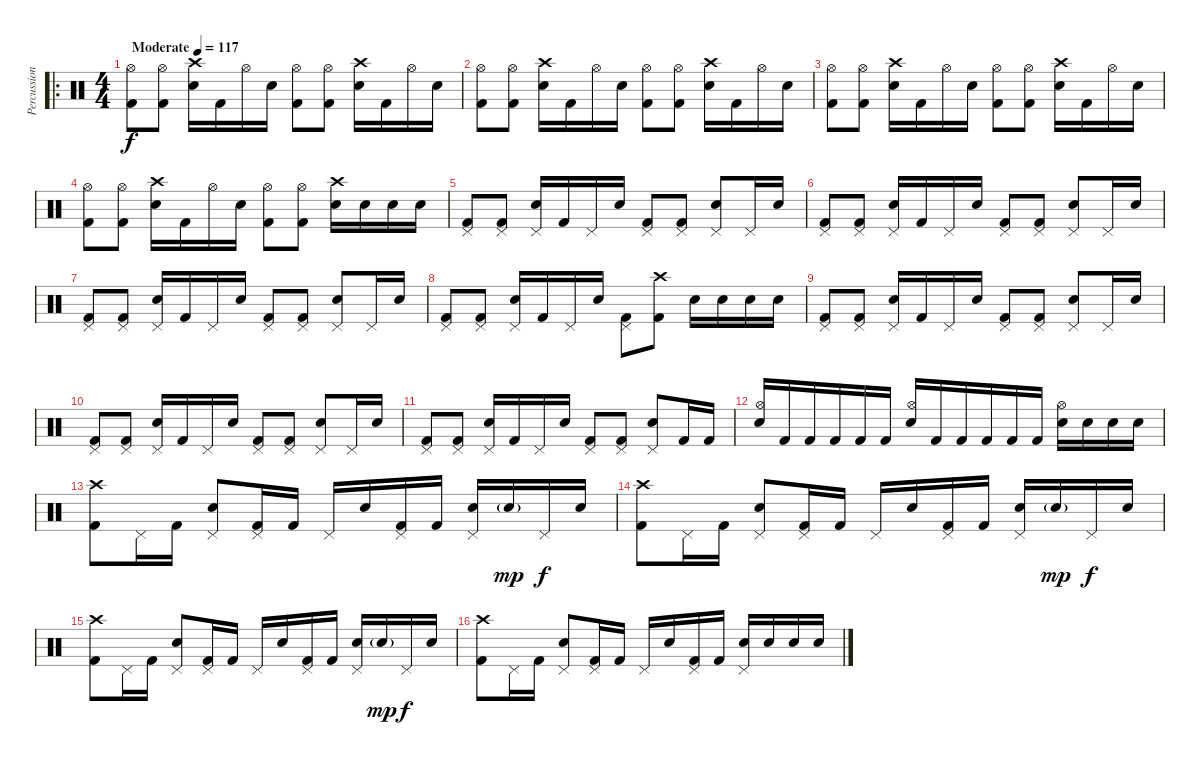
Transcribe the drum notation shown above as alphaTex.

\track ("Percussion" "Percussion") {instrument percussion}
\staff {score}
\articulation defaults
\ro
\ts (4 4)
\tempo (117 "Moderate")
\clef neutral
\ks c
("Hi-Hat (open)" "Kick (hit) 2").8{dy f} ("Hi-Hat (open)" "Kick (hit) 2").8 ("Crash high (hit)" "Snare (hit) 2").16 "Kick (hit) 2".16 "Hi-Hat (open)".16 "Snare (hit) 2".16 ("Hi-Hat (open)" "Kick (hit) 2").8 ("Hi-Hat (open)" "Kick (hit) 2").8 ("Crash high (hit)" "Snare (hit) 2").16 "Kick (hit) 2".16 "Hi-Hat (open)".16 "Snare (hit) 2".16 |
("Hi-Hat (open)" "Kick (hit) 2").8 ("Hi-Hat (open)" "Kick (hit) 2").8 ("Crash high (hit)" "Snare (hit) 2").16 "Kick (hit) 2".16 "Hi-Hat (open)".16 "Snare (hit) 2".16 ("Hi-Hat (open)" "Kick (hit) 2").8 ("Hi-Hat (open)" "Kick (hit) 2").8 ("Crash high (hit)" "Snare (hit) 2").16 "Kick (hit) 2".16 "Hi-Hat (open)".16 "Snare (hit) 2".16 |
("Hi-Hat (open)" "Kick (hit) 2").8 ("Hi-Hat (open)" "Kick (hit) 2").8 ("Crash high (hit)" "Snare (hit) 2").16 "Kick (hit) 2".16 "Hi-Hat (open)".16 "Snare (hit) 2".16 ("Hi-Hat (open)" "Kick (hit) 2").8 ("Hi-Hat (open)" "Kick (hit) 2").8 ("Crash high (hit)" "Snare (hit) 2").16 "Kick (hit) 2".16 "Hi-Hat (open)".16 "Snare (hit) 2".16 |
("Hi-Hat (open)" "Kick (hit) 2").8 ("Hi-Hat (open)" "Kick (hit) 2").8 ("Crash high (hit)" "Snare (hit) 2").16 "Kick (hit) 2".16 "Hi-Hat (open)".16 "Snare (hit) 2".16 ("Hi-Hat (open)" "Kick (hit) 2").8 ("Hi-Hat (open)" "Kick (hit) 2").8 ("Crash high (hit)" "Snare (hit) 2").16 "Snare (hit) 2".16 "Snare (hit) 2".16 "Snare (hit) 2".16 |
("Pedal Hi-Hat (hit)" "Kick (hit) 2").8 ("Pedal Hi-Hat (hit)" "Kick (hit) 2").8 ("Pedal Hi-Hat (hit)" "Snare (hit) 2").16 "Kick (hit) 2".16 "Pedal Hi-Hat (hit)".16 "Snare (hit) 2".16 ("Pedal Hi-Hat (hit)" "Kick (hit) 2").8 ("Pedal Hi-Hat (hit)" "Kick (hit) 2").8 ("Pedal Hi-Hat (hit)" "Snare (hit) 2").8 "Pedal Hi-Hat (hit)".16 "Snare (hit) 2".16 |
("Pedal Hi-Hat (hit)" "Kick (hit) 2").8 ("Pedal Hi-Hat (hit)" "Kick (hit) 2").8 ("Pedal Hi-Hat (hit)" "Snare (hit) 2").16 "Kick (hit) 2".16 "Pedal Hi-Hat (hit)".16 "Snare (hit) 2".16 ("Pedal Hi-Hat (hit)" "Kick (hit) 2").8 ("Pedal Hi-Hat (hit)" "Kick (hit) 2").8 ("Pedal Hi-Hat (hit)" "Snare (hit) 2").8 "Pedal Hi-Hat (hit)".16 "Snare (hit) 2".16 |
("Pedal Hi-Hat (hit)" "Kick (hit) 2").8 ("Pedal Hi-Hat (hit)" "Kick (hit) 2").8 ("Pedal Hi-Hat (hit)" "Snare (hit) 2").16 "Kick (hit) 2".16 "Pedal Hi-Hat (hit)".16 "Snare (hit) 2".16 ("Pedal Hi-Hat (hit)" "Kick (hit) 2").8 ("Pedal Hi-Hat (hit)" "Kick (hit) 2").8 ("Pedal Hi-Hat (hit)" "Snare (hit) 2").8 "Pedal Hi-Hat (hit)".16 "Snare (hit) 2".16 |
("Pedal Hi-Hat (hit)" "Kick (hit) 2").8 ("Pedal Hi-Hat (hit)" "Kick (hit) 2").8 ("Pedal Hi-Hat (hit)" "Snare (hit) 2").16 "Kick (hit) 2".16 "Pedal Hi-Hat (hit)".16 "Snare (hit) 2".16 ("Pedal Hi-Hat (hit)" "Kick (hit) 2").8 ("Crash high (hit)" "Kick (hit) 2").8 "Snare (hit) 2".16 "Snare (hit) 2".16 "Snare (hit) 2".16 "Snare (hit) 2".16 |
("Pedal Hi-Hat (hit)" "Kick (hit) 2").8 ("Pedal Hi-Hat (hit)" "Kick (hit) 2").8 ("Pedal Hi-Hat (hit)" "Snare (hit) 2").16 "Kick (hit) 2".16 "Pedal Hi-Hat (hit)".16 "Snare (hit) 2".16 ("Pedal Hi-Hat (hit)" "Kick (hit) 2").8 ("Pedal Hi-Hat (hit)" "Kick (hit) 2").8 ("Pedal Hi-Hat (hit)" "Snare (hit) 2").8 "Pedal Hi-Hat (hit)".16 "Snare (hit) 2".16 |
("Pedal Hi-Hat (hit)" "Kick (hit) 2").8 ("Pedal Hi-Hat (hit)" "Kick (hit) 2").8 ("Pedal Hi-Hat (hit)" "Snare (hit) 2").16 "Kick (hit) 2".16 "Pedal Hi-Hat (hit)".16 "Snare (hit) 2".16 ("Pedal Hi-Hat (hit)" "Kick (hit) 2").8 ("Pedal Hi-Hat (hit)" "Kick (hit) 2").8 ("Pedal Hi-Hat (hit)" "Snare (hit) 2").8 "Pedal Hi-Hat (hit)".16 "Snare (hit) 2".16 |
("Pedal Hi-Hat (hit)" "Kick (hit) 2").8 ("Pedal Hi-Hat (hit)" "Kick (hit) 2").8 ("Pedal Hi-Hat (hit)" "Snare (hit) 2").16 "Kick (hit) 2".16 "Pedal Hi-Hat (hit)".16 "Snare (hit) 2".16 ("Pedal Hi-Hat (hit)" "Kick (hit) 2").8 ("Pedal Hi-Hat (hit)" "Kick (hit) 2").8 ("Pedal Hi-Hat (hit)" "Snare (hit) 2").8 "Kick (hit) 2".16 "Kick (hit) 2".16 |
("Hi-Hat (open)" "Snare (hit) 2").16{beam Up} "Kick (hit) 2".16{beam Up beam merge} "Kick (hit) 2".16{beam Up beam merge} "Kick (hit) 2".16{beam Up beam merge} "Kick (hit) 2".16{beam Up beam merge} "Kick (hit) 2".16{beam Up beam split} ("Hi-Hat (open)" "Snare (hit) 2").16{beam Up} "Kick (hit) 2".16{beam Up beam merge} "Kick (hit) 2".16 "Kick (hit) 2".16 "Kick (hit) 2".16 "Kick (hit) 2".16 ("Hi-Hat (open)" "Snare (hit) 2").16 "Snare (hit) 2".16 "Snare (hit) 2".16 "Snare (hit) 2".16 |
("Crash high (hit)" "Kick (hit) 2").8 "Pedal Hi-Hat (hit)".16 "Kick (hit) 2".16 ("Pedal Hi-Hat (hit)" "Snare (hit) 2").8 ("Pedal Hi-Hat (hit)" "Kick (hit) 2").16 "Kick (hit) 2".16 "Pedal Hi-Hat (hit)".16 "Snare (hit) 2".16 ("Pedal Hi-Hat (hit)" "Kick (hit) 2").16 "Kick (hit) 2".16 ("Pedal Hi-Hat (hit)" "Snare (hit) 2").16 "Snare (hit) 2"{g}.16{dy mp} "Pedal Hi-Hat (hit)".16{dy f} "Snare (hit) 2".16 |
("Crash high (hit)" "Kick (hit) 2").8 "Pedal Hi-Hat (hit)".16 "Kick (hit) 2".16 ("Pedal Hi-Hat (hit)" "Snare (hit) 2").8 ("Pedal Hi-Hat (hit)" "Kick (hit) 2").16 "Kick (hit) 2".16 "Pedal Hi-Hat (hit)".16 "Snare (hit) 2".16 ("Pedal Hi-Hat (hit)" "Kick (hit) 2").16 "Kick (hit) 2".16 ("Pedal Hi-Hat (hit)" "Snare (hit) 2").16 "Snare (hit) 2"{g}.16{dy mp} "Pedal Hi-Hat (hit)".16{dy f} "Snare (hit) 2".16 |
("Crash high (hit)" "Kick (hit) 2").8 "Pedal Hi-Hat (hit)".16 "Kick (hit) 2".16 ("Pedal Hi-Hat (hit)" "Snare (hit) 2").8 ("Pedal Hi-Hat (hit)" "Kick (hit) 2").16 "Kick (hit) 2".16 "Pedal Hi-Hat (hit)".16 "Snare (hit) 2".16 ("Pedal Hi-Hat (hit)" "Kick (hit) 2").16 "Kick (hit) 2".16 ("Pedal Hi-Hat (hit)" "Snare (hit) 2").16 "Snare (hit) 2"{g}.16{dy mp} "Pedal Hi-Hat (hit)".16{dy f} "Snare (hit) 2".16 |
("Crash high (hit)" "Kick (hit) 2").8 "Pedal Hi-Hat (hit)".16 "Kick (hit) 2".16 ("Pedal Hi-Hat (hit)" "Snare (hit) 2").8 ("Pedal Hi-Hat (hit)" "Kick (hit) 2").16 "Kick (hit) 2".16 "Pedal Hi-Hat (hit)".16 "Snare (hit) 2".16 ("Pedal Hi-Hat (hit)" "Kick (hit) 2").16 "Kick (hit) 2".16 ("Pedal Hi-Hat (hit)" "Snare (hit) 2").16 "Snare (hit) 2".16 "Snare (hit) 2".16 "Snare (hit) 2".16
